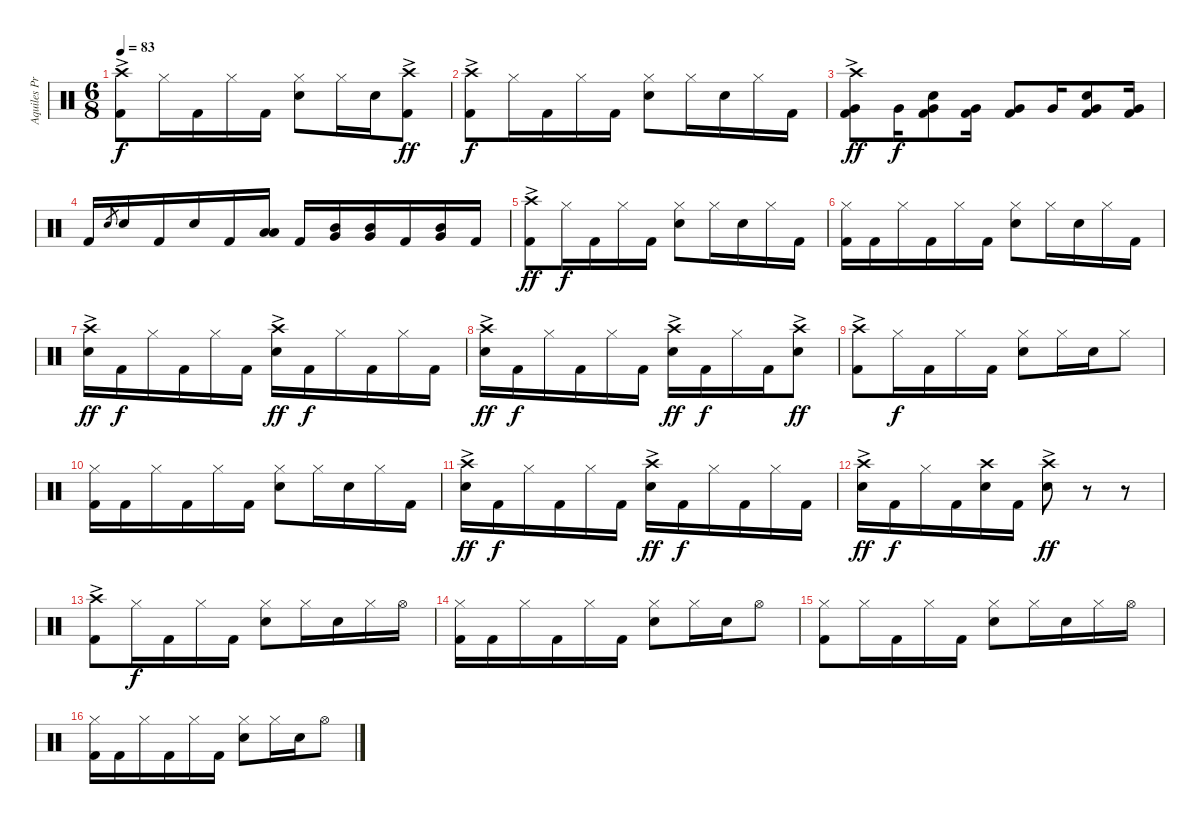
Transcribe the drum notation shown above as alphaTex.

\track ("Aquiles Priester" "Aquiles Pr") {instrument percussion}
\staff {score}
\articulation defaults
\ts (6 8)
\tempo 83
\clef neutral
\ks c
("Crash high (hit)"{ac} "Kick (hit) 2"{ac}).8{dy f} "Hi-Hat (closed)".16 "Kick (hit) 2".16 "Hi-Hat (closed)".16 "Kick (hit) 2".16 ("Hi-Hat (closed)" "Electric Snare (hit)").8 "Hi-Hat (closed)".16 "Electric Snare (hit)".16 ("Crash high (hit)"{ac} "Kick (hit) 2"{ac}).8{dy ff} |
("Crash high (hit)"{ac} "Kick (hit) 2"{ac}).8{dy f} "Hi-Hat (closed)".16 "Kick (hit) 2".16 "Hi-Hat (closed)".16 "Kick (hit) 2".16 ("Hi-Hat (closed)" "Electric Snare (hit)").8 "Hi-Hat (closed)".16 "Electric Snare (hit)".16 "Hi-Hat (closed)".16 "Kick (hit) 2".16 |
("Crash high (hit)"{ac} "Kick (hit) 2"{ac} "Very Low Tom (hit)"{ac}).8{dy ff} "Very Low Tom (hit)".16{dy f} ("Kick (hit) 2" "Electric Snare (hit)" "Very Low Tom (hit)").8 ("Kick (hit) 2" "Very Low Tom (hit)").16 ("Kick (hit) 2" "Very Low Tom (hit)").8 "Very Low Tom (hit)".16 ("Kick (hit) 2" "Electric Snare (hit)" "Very Low Tom (hit)").8 ("Kick (hit) 2" "Very Low Tom (hit)").16 |
"Kick (hit) 2".16 "Electric Snare (hit)".8{gr} "Electric Snare (hit)".16 "Kick (hit) 2".16 "Electric Snare (hit)".16 "Kick (hit) 2".16 ("Low Tom (hit)" "Low Floor Tom (hit)").16 "Kick (hit) 2".16 ("Very Low Tom (hit)" "Mid Tom (hit)").16 ("Very Low Tom (hit)" "Mid Tom (hit)").16 "Kick (hit) 2".16 ("Very Low Tom (hit)" "Mid Tom (hit)").16 "Kick (hit) 2".16 |
("Crash high (hit)"{ac} "Kick (hit) 2"{ac}).8{dy ff} "Hi-Hat (closed)".16{dy f} "Kick (hit) 2".16 "Hi-Hat (closed)".16 "Kick (hit) 2".16 ("Hi-Hat (closed)" "Electric Snare (hit)").8 "Hi-Hat (closed)".16 "Electric Snare (hit)".16 "Hi-Hat (closed)".16 "Kick (hit) 2".16 |
("Hi-Hat (closed)" "Kick (hit) 2").16 "Kick (hit) 2".16 "Hi-Hat (closed)".16 "Kick (hit) 2".16 "Hi-Hat (closed)".16 "Kick (hit) 2".16 ("Hi-Hat (closed)" "Electric Snare (hit)").8 "Hi-Hat (closed)".16 "Electric Snare (hit)".16 "Hi-Hat (closed)".16 "Kick (hit) 2".16 |
("Crash high (hit)"{ac} "Electric Snare (hit)"{ac}).16{dy ff} "Kick (hit) 2".16{dy f} "Hi-Hat (closed)".16 "Kick (hit) 2".16 "Hi-Hat (closed)".16 "Kick (hit) 2".16 ("Crash high (hit)"{ac} "Electric Snare (hit)"{ac}).16{dy ff} "Kick (hit) 2".16{dy f} "Hi-Hat (closed)".16 "Kick (hit) 2".16 "Hi-Hat (closed)".16 "Kick (hit) 2".16 |
("Crash high (hit)"{ac} "Electric Snare (hit)"{ac}).16{dy ff} "Kick (hit) 2".16{dy f} "Hi-Hat (closed)".16 "Kick (hit) 2".16 "Hi-Hat (closed)".16 "Kick (hit) 2".16 ("Crash high (hit)"{ac} "Electric Snare (hit)"{ac}).16{dy ff} "Kick (hit) 2".16{dy f} "Hi-Hat (closed)".16 "Kick (hit) 2".16 ("Crash high (hit)"{ac} "Electric Snare (hit)"{ac}).8{dy ff} |
("Crash high (hit)"{ac} "Kick (hit) 2"{ac}).8 "Hi-Hat (closed)".16{dy f} "Kick (hit) 2".16 "Hi-Hat (closed)".16 "Kick (hit) 2".16 ("Hi-Hat (closed)" "Electric Snare (hit)").8 "Hi-Hat (closed)".16 "Electric Snare (hit)".16 "Hi-Hat (closed)".8 |
("Hi-Hat (closed)" "Kick (hit) 2").16 "Kick (hit) 2".16 "Hi-Hat (closed)".16 "Kick (hit) 2".16 "Hi-Hat (closed)".16 "Kick (hit) 2".16 ("Hi-Hat (closed)" "Electric Snare (hit)").8 "Hi-Hat (closed)".16 "Electric Snare (hit)".16 "Hi-Hat (closed)".16 "Kick (hit) 2".16 |
("Crash high (hit)"{ac} "Electric Snare (hit)"{ac}).16{dy ff} "Kick (hit) 2".16{dy f} "Hi-Hat (closed)".16 "Kick (hit) 2".16 "Hi-Hat (closed)".16 "Kick (hit) 2".16 ("Crash high (hit)"{ac} "Electric Snare (hit)"{ac}).16{dy ff} "Kick (hit) 2".16{dy f} "Hi-Hat (closed)".16 "Kick (hit) 2".16 "Hi-Hat (closed)".16 "Kick (hit) 2".16 |
("Crash high (hit)"{ac} "Electric Snare (hit)"{ac}).16{dy ff} "Kick (hit) 2".16{dy f} "Hi-Hat (closed)".16 "Kick (hit) 2".16 ("Crash high (hit)" "Electric Snare (hit)").16 "Kick (hit) 2".16 ("Crash high (hit)"{ac} "Electric Snare (hit)"{ac}).8{dy ff} r.8 r.8 |
("Crash high (hit)"{ac} "Kick (hit) 2"{ac}).8 "Hi-Hat (closed)".16{dy f} "Kick (hit) 2".16 "Hi-Hat (closed)".16 "Kick (hit) 2".16 ("Hi-Hat (closed)" "Electric Snare (hit)").8 "Hi-Hat (closed)".16 "Electric Snare (hit)".16 "Hi-Hat (closed)".16 "Hi-Hat (open)".16 |
("Hi-Hat (closed)" "Kick (hit) 2").16 "Kick (hit) 2".16 "Hi-Hat (closed)".16 "Kick (hit) 2".16 "Hi-Hat (closed)".16 "Kick (hit) 2".16 ("Hi-Hat (closed)" "Electric Snare (hit)").8 "Hi-Hat (closed)".16 "Electric Snare (hit)".16 "Hi-Hat (open)".8 |
("Hi-Hat (closed)" "Kick (hit) 2").8 "Hi-Hat (closed)".16 "Kick (hit) 2".16 "Hi-Hat (closed)".16 "Kick (hit) 2".16 ("Hi-Hat (closed)" "Electric Snare (hit)").8 "Hi-Hat (closed)".16 "Electric Snare (hit)".16 "Hi-Hat (closed)".16 "Hi-Hat (open)".16 |
("Hi-Hat (closed)" "Kick (hit) 2").16 "Kick (hit) 2".16 "Hi-Hat (closed)".16 "Kick (hit) 2".16 "Hi-Hat (closed)".16 "Kick (hit) 2".16 ("Hi-Hat (closed)" "Electric Snare (hit)").8 "Hi-Hat (closed)".16 "Electric Snare (hit)".16 "Hi-Hat (open)".8
